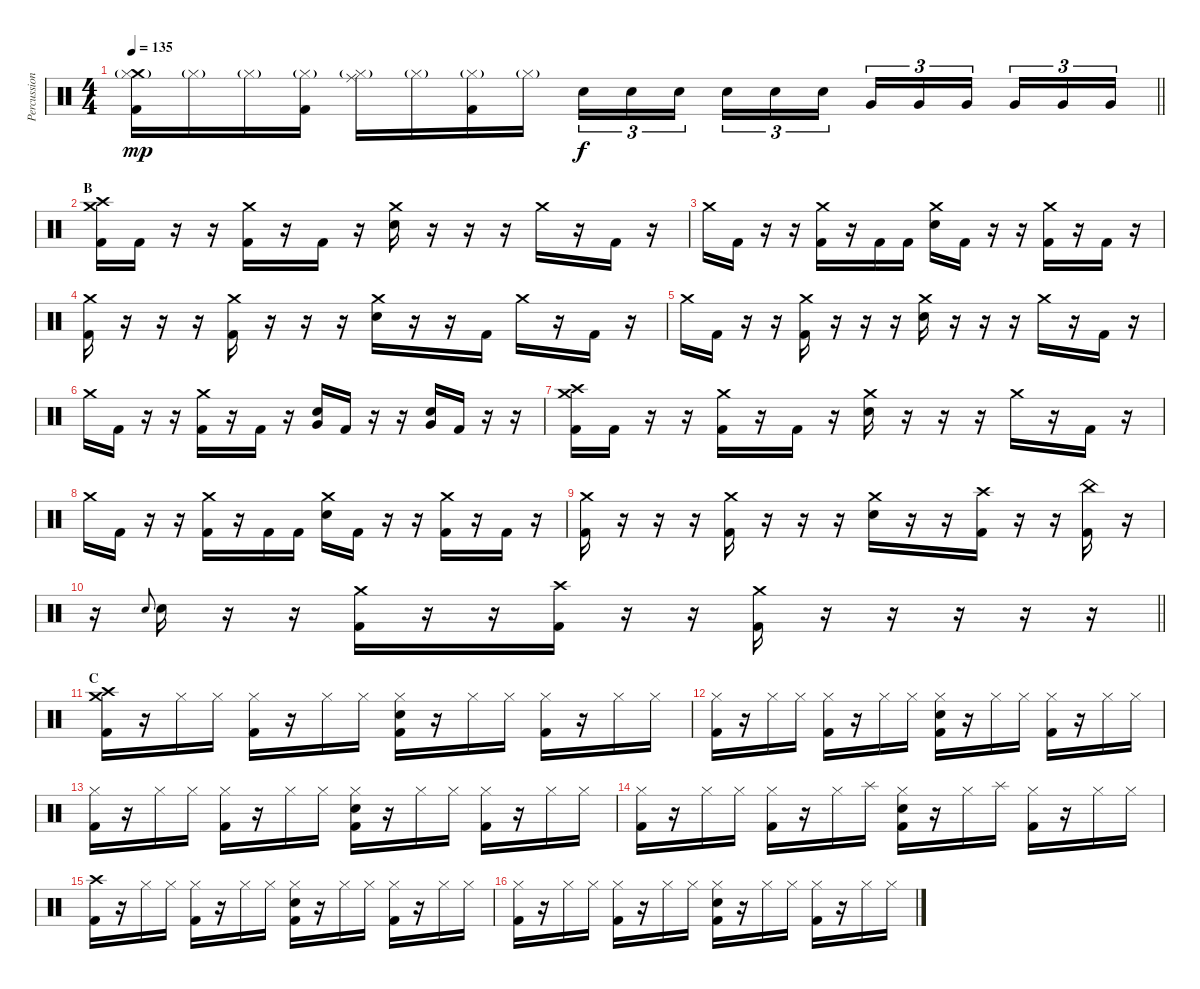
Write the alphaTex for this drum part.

\track ("Percussion" "Percussion") {instrument percussion}
\staff {score}
\articulation defaults
\ts (4 4)
\tempo 135
\clef neutral
\barLineRight lightlight
\ks c
("Crash medium (hit)" "Hi-Hat (closed)"{g} "Kick (hit) 2").16{dy mp} "Hi-Hat (closed)"{g}.16 "Hi-Hat (closed)"{g}.16 ("Hi-Hat (closed)"{g} "Kick (hit) 2").16 ("Ride (middle)" "Hi-Hat (closed)"{g}).16 "Hi-Hat (closed)"{g}.16 ("Hi-Hat (closed)"{g} "Kick (hit) 2").16 "Hi-Hat (closed)"{g}.16 "Snare (hit) 2".16{tu (3 2) dy f} "Snare (hit) 2".16{tu (3 2)} "Snare (hit) 2".16{tu (3 2) beam splitsecondary} "Snare (hit) 2".16{tu (3 2)} "Snare (hit) 2".16{tu (3 2)} "Snare (hit) 2".16{tu (3 2)} "Very Low Tom (hit)".16{tu (3 2)} "Very Low Tom (hit)".16{tu (3 2)} "Very Low Tom (hit)".16{tu (3 2) beam splitsecondary} "Very Low Tom (hit)".16{tu (3 2)} "Very Low Tom (hit)".16{tu (3 2)} "Very Low Tom (hit)".16{tu (3 2)} |
\section ("" "B")
("Crash high (hit)" "Crash medium (hit)" "Kick (hit) 2").16 "Kick (hit) 2".16 r.16 r.16 ("Crash medium (hit)" "Kick (hit) 2").16 r.16 "Kick (hit) 2".16 r.16 ("Crash medium (hit)" "Snare (hit) 2").16 r.16 r.16 r.16 "Crash medium (hit)".16 r.16 "Kick (hit) 2".16 r.16 |
"Crash medium (hit)".16 "Kick (hit) 2".16 r.16 r.16 ("Crash medium (hit)" "Kick (hit) 2").16 r.16 "Kick (hit) 2".16 "Kick (hit) 2".16 ("Crash medium (hit)" "Snare (hit) 2").16 "Kick (hit) 2".16 r.16 r.16 ("Crash medium (hit)" "Kick (hit) 2").16 r.16 "Kick (hit) 2".16 r.16 |
("Crash medium (hit)" "Kick (hit) 2").16 r.16 r.16 r.16 ("Crash medium (hit)" "Kick (hit) 2").16 r.16 r.16 r.16 ("Crash medium (hit)" "Snare (hit) 2").16 r.16 r.16 "Kick (hit) 2".16 "Crash medium (hit)".16 r.16 "Kick (hit) 2".16 r.16 |
"Crash medium (hit)".16 "Kick (hit) 2".16 r.16 r.16 ("Crash medium (hit)" "Kick (hit) 2").16 r.16 r.16 r.16 ("Crash medium (hit)" "Snare (hit) 2").16 r.16 r.16 r.16 "Crash medium (hit)".16 r.16 "Kick (hit) 2".16 r.16 |
"Crash medium (hit)".16 "Kick (hit) 2".16 r.16 r.16 ("Crash medium (hit)" "Kick (hit) 2").16 r.16 "Kick (hit) 2".16 r.16 ("Snare (hit) 2" "Very Low Tom (hit)").16{bu 60} "Kick (hit) 2".16 r.16 r.16 ("Snare (hit) 2" "Very Low Tom (hit)").16{bu 60} "Kick (hit) 2".16 r.16 r.16 |
("Crash high (hit)" "Crash medium (hit)" "Kick (hit) 2").16 "Kick (hit) 2".16 r.16 r.16 ("Crash medium (hit)" "Kick (hit) 2").16 r.16 "Kick (hit) 2".16 r.16 ("Crash medium (hit)" "Snare (hit) 2").16 r.16 r.16 r.16 "Crash medium (hit)".16 r.16 "Kick (hit) 2".16 r.16 |
"Crash medium (hit)".16 "Kick (hit) 2".16 r.16 r.16 ("Crash medium (hit)" "Kick (hit) 2").16 r.16 "Kick (hit) 2".16 "Kick (hit) 2".16 ("Crash medium (hit)" "Snare (hit) 2").16 "Kick (hit) 2".16 r.16 r.16 ("Crash medium (hit)" "Kick (hit) 2").16 r.16 "Kick (hit) 2".16 r.16 |
("Crash medium (hit)" "Kick (hit) 2").16 r.16 r.16 r.16 ("Crash medium (hit)" "Kick (hit) 2").16 r.16 r.16 r.16 ("Crash medium (hit)" "Snare (hit) 2").16 r.16 r.16 ("Crash high (hit)" "Kick (hit) 2").16 r.16 r.16 ("China (hit)" "Kick (hit) 2").16 r.16 |
\barLineRight lightlight
r.16 "Snare (hit) 2".8{gr onbeat} "Snare (hit) 2".16 r.16 r.16 ("Crash medium (hit)" "Kick (hit) 2").16 r.16 r.16 ("Crash high (hit)" "Kick (hit) 2").16 r.16 r.16 ("Crash medium (hit)" "Kick (hit) 2").16 r.16 r.16 r.16 r.16 r.16 |
\section ("" "C")
("Crash medium (hit)" "Crash high (hit)" "Kick (hit) 2").16 r.16 "Hi-Hat (closed)".16 "Hi-Hat (closed)".16 ("Hi-Hat (closed)" "Kick (hit) 2").16 r.16 "Hi-Hat (closed)".16 "Hi-Hat (closed)".16 ("Hi-Hat (closed)" "Snare (hit) 2" "Kick (hit) 2").16 r.16 "Hi-Hat (closed)".16 "Hi-Hat (closed)".16 ("Hi-Hat (closed)" "Kick (hit) 2").16 r.16 "Hi-Hat (closed)".16 "Hi-Hat (closed)".16 |
("Hi-Hat (closed)" "Kick (hit) 2").16 r.16 "Hi-Hat (closed)".16 "Hi-Hat (closed)".16 ("Hi-Hat (closed)" "Kick (hit) 2").16 r.16 "Hi-Hat (closed)".16 "Hi-Hat (closed)".16 ("Hi-Hat (closed)" "Snare (hit) 2" "Kick (hit) 2").16 r.16 "Hi-Hat (closed)".16 "Hi-Hat (closed)".16 ("Hi-Hat (closed)" "Kick (hit) 2").16 r.16 "Hi-Hat (closed)".16 "Hi-Hat (closed)".16 |
("Hi-Hat (closed)" "Kick (hit) 2").16 r.16 "Hi-Hat (closed)".16 "Hi-Hat (closed)".16 ("Hi-Hat (closed)" "Kick (hit) 2").16 r.16 "Hi-Hat (closed)".16 "Hi-Hat (closed)".16 ("Hi-Hat (closed)" "Snare (hit) 2" "Kick (hit) 2").16 r.16 "Hi-Hat (closed)".16 "Hi-Hat (closed)".16 ("Hi-Hat (closed)" "Kick (hit) 2").16 r.16 "Hi-Hat (closed)".16 "Hi-Hat (closed)".16 |
("Hi-Hat (closed)" "Kick (hit) 2").16 r.16 "Hi-Hat (closed)".16 "Hi-Hat (closed)".16 ("Hi-Hat (closed)" "Kick (hit) 2").16 r.16 "Hi-Hat (closed)".16 "Splash (hit)".16 ("Hi-Hat (closed)" "Snare (hit) 2" "Kick (hit) 2").16 r.16 "Hi-Hat (closed)".16 "Splash (hit)".16 ("Hi-Hat (closed)" "Kick (hit) 2").16 r.16 "Hi-Hat (closed)".16 "Hi-Hat (closed)".16 |
("Crash high (hit)" "Kick (hit) 2").16 r.16 "Hi-Hat (closed)".16 "Hi-Hat (closed)".16 ("Hi-Hat (closed)" "Kick (hit) 2").16 r.16 "Hi-Hat (closed)".16 "Hi-Hat (closed)".16 ("Hi-Hat (closed)" "Snare (hit) 2" "Kick (hit) 2").16 r.16 "Hi-Hat (closed)".16 "Hi-Hat (closed)".16 ("Hi-Hat (closed)" "Kick (hit) 2").16 r.16 "Hi-Hat (closed)".16 "Hi-Hat (closed)".16 |
("Hi-Hat (closed)" "Kick (hit) 2").16 r.16 "Hi-Hat (closed)".16 "Hi-Hat (closed)".16 ("Hi-Hat (closed)" "Kick (hit) 2").16 r.16 "Hi-Hat (closed)".16 "Hi-Hat (closed)".16 ("Hi-Hat (closed)" "Snare (hit) 2" "Kick (hit) 2").16 r.16 "Hi-Hat (closed)".16 "Hi-Hat (closed)".16 ("Hi-Hat (closed)" "Kick (hit) 2").16 r.16 "Hi-Hat (closed)".16 "Hi-Hat (closed)".16
